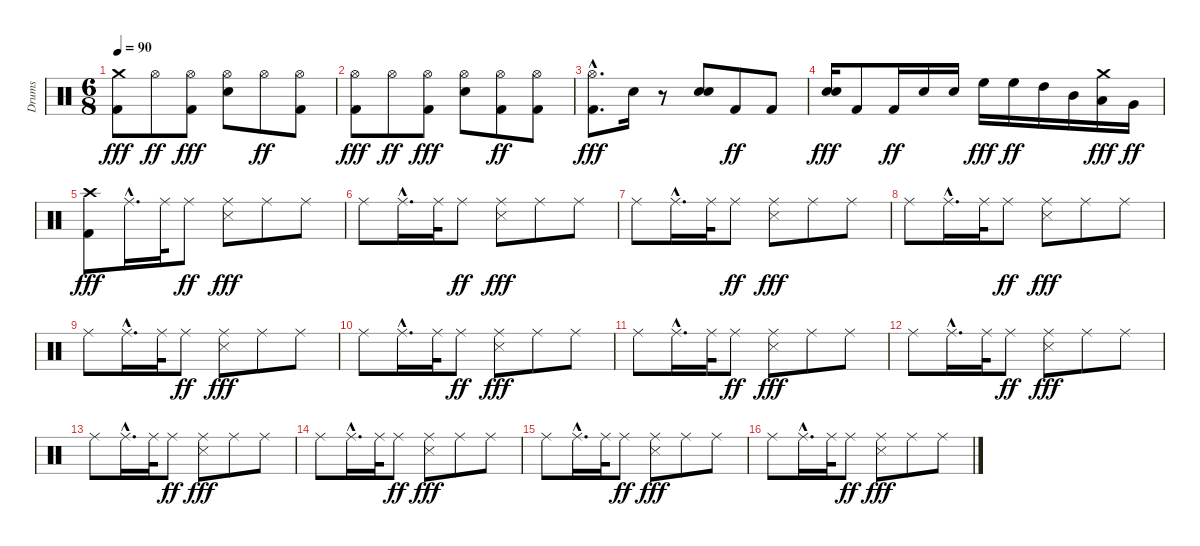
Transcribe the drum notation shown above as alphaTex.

\track ("Drums" "Drums") {instrument percussion}
\staff {score}
\articulation defaults
\ts (6 8)
\tempo 90
\clef neutral
\ks c
("Kick (hit) 2" "Crash medium (hit)").8{dy fff} "Hi-Hat (open)".8{dy ff} ("Hi-Hat (open)" "Kick (hit) 2").8{dy fff} ("Hi-Hat (open)" "Snare (hit) 2").8 "Hi-Hat (open)".8{dy ff} ("Hi-Hat (open)" "Kick (hit) 2").8 |
("Hi-Hat (open)" "Kick (hit) 2").8{dy fff} "Hi-Hat (open)".8{dy ff} ("Hi-Hat (open)" "Kick (hit) 2").8{dy fff} ("Hi-Hat (open)" "Snare (hit) 2").8 ("Hi-Hat (open)" "Kick (hit) 2").8{dy ff} ("Hi-Hat (open)" "Kick (hit) 2").8 |
("Hi-Hat (open)" "Kick (hit) 2"{hac}).8{d dy fff} "Snare (hit) 2".16 r.8 ("Snare (hit) 2" "Snare (hit) 2").8 "Kick (hit) 2".8{dy ff} "Kick (hit) 2".8 |
("Snare (hit) 2" "Snare (hit) 2").16{dy fff} "Kick (hit) 2".8 "Kick (hit) 2".16{dy ff} "Electric Snare (hit)".16 "Electric Snare (hit)".16 "High Floor Tom (hit)".16{dy fff} "High Floor Tom (hit)".16{dy ff} "High Tom (hit)".16 "Mid Tom (hit)".16 ("Low Tom (hit)" "Crash medium (hit)").16{dy fff} "Very Low Tom (hit)".16{dy ff} |
("Kick (hit) 2" "Crash high (hit)").8{dy fff} "Ride (middle)"{hac}.16{d} "Ride (middle)".32 "Ride (middle)".8{dy ff} ("Ride (middle)" "Snare (side stick) 3").8{dy fff} "Ride (middle)".8 "Ride (middle)".8 |
"Ride (middle)".8 "Ride (middle)"{hac}.16{d} "Ride (middle)".32 "Ride (middle)".8{dy ff} ("Ride (middle)" "Snare (side stick) 3").8{dy fff} "Ride (middle)".8 "Ride (middle)".8 |
"Ride (middle)".8 "Ride (middle)"{hac}.16{d} "Ride (middle)".32 "Ride (middle)".8{dy ff} ("Ride (middle)" "Snare (side stick) 3").8{dy fff} "Ride (middle)".8 "Ride (middle)".8 |
"Ride (middle)".8 "Ride (middle)"{hac}.16{d} "Ride (middle)".32 "Ride (middle)".8{dy ff} ("Ride (middle)" "Snare (side stick) 3").8{dy fff} "Ride (middle)".8 "Ride (middle)".8 |
"Ride (middle)".8 "Ride (middle)"{hac}.16{d} "Ride (middle)".32 "Ride (middle)".8{dy ff} ("Ride (middle)" "Snare (side stick) 3").8{dy fff} "Ride (middle)".8 "Ride (middle)".8 |
"Ride (middle)".8 "Ride (middle)"{hac}.16{d} "Ride (middle)".32 "Ride (middle)".8{dy ff} ("Ride (middle)" "Snare (side stick) 3").8{dy fff} "Ride (middle)".8 "Ride (middle)".8 |
"Ride (middle)".8 "Ride (middle)"{hac}.16{d} "Ride (middle)".32 "Ride (middle)".8{dy ff} ("Ride (middle)" "Snare (side stick) 3").8{dy fff} "Ride (middle)".8 "Ride (middle)".8 |
"Ride (middle)".8 "Ride (middle)"{hac}.16{d} "Ride (middle)".32 "Ride (middle)".8{dy ff} ("Ride (middle)" "Snare (side stick) 3").8{dy fff} "Ride (middle)".8 "Ride (middle)".8 |
"Ride (middle)".8 "Ride (middle)"{hac}.16{d} "Ride (middle)".32 "Ride (middle)".8{dy ff} ("Ride (middle)" "Snare (side stick) 3").8{dy fff} "Ride (middle)".8 "Ride (middle)".8 |
"Ride (middle)".8 "Ride (middle)"{hac}.16{d} "Ride (middle)".32 "Ride (middle)".8{dy ff} ("Ride (middle)" "Snare (side stick) 3").8{dy fff} "Ride (middle)".8 "Ride (middle)".8 |
"Ride (middle)".8 "Ride (middle)"{hac}.16{d} "Ride (middle)".32 "Ride (middle)".8{dy ff} ("Ride (middle)" "Snare (side stick) 3").8{dy fff} "Ride (middle)".8 "Ride (middle)".8 |
"Ride (middle)".8 "Ride (middle)"{hac}.16{d} "Ride (middle)".32 "Ride (middle)".8{dy ff} ("Ride (middle)" "Snare (side stick) 3").8{dy fff} "Ride (middle)".8 "Ride (middle)".8
